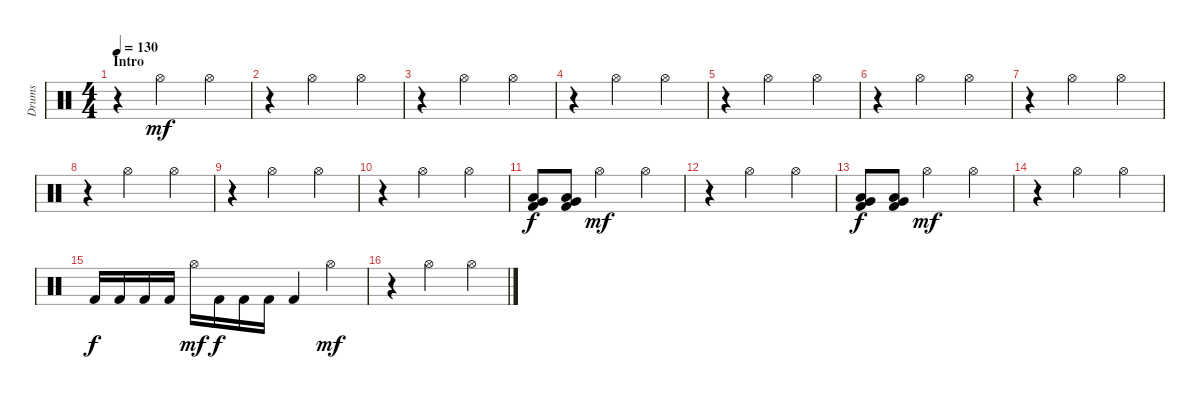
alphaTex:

\track ("Drums" "Drums") {instrument percussion}
\staff {score}
\articulation defaults
\ts (4 4)
\section ("" "Intro")
\tempo 130
\clef neutral
\ks c
r.4{dy mf} "Hi-Hat (open)".2 "Hi-Hat (open)".4 |
r.4 "Hi-Hat (open)".2 "Hi-Hat (open)".4 |
r.4 "Hi-Hat (open)".2 "Hi-Hat (open)".4 |
r.4 "Hi-Hat (open)".2 "Hi-Hat (open)".4 |
r.4 "Hi-Hat (open)".2 "Hi-Hat (open)".4 |
r.4 "Hi-Hat (open)".2 "Hi-Hat (open)".4 |
r.4 "Hi-Hat (open)".2 "Hi-Hat (open)".4 |
r.4 "Hi-Hat (open)".2 "Hi-Hat (open)".4 |
r.4 "Hi-Hat (open)".2 "Hi-Hat (open)".4 |
r.4 "Hi-Hat (open)".2 "Hi-Hat (open)".4 |
("Very Low Tom (hit)" "Low Tom (hit)" "Kick (hit) 2").8{dy f} ("Very Low Tom (hit)" "Low Tom (hit)" "Kick (hit) 2").8 "Hi-Hat (open)".2{dy mf} "Hi-Hat (open)".4 |
r.4 "Hi-Hat (open)".2 "Hi-Hat (open)".4 |
("Very Low Tom (hit)" "Low Tom (hit)" "Kick (hit) 2").8{dy f} ("Very Low Tom (hit)" "Low Tom (hit)" "Kick (hit) 2").8 "Hi-Hat (open)".2{dy mf} "Hi-Hat (open)".4 |
r.4 "Hi-Hat (open)".2 "Hi-Hat (open)".4 |
"Kick (hit) 2".16{dy f} "Kick (hit) 2".16 "Kick (hit) 2".16 "Kick (hit) 2".16 "Hi-Hat (open)".16{dy mf} "Kick (hit) 2".16{dy f} "Kick (hit) 2".16 "Kick (hit) 2".16 "Kick (hit) 2".4 "Hi-Hat (open)".4{dy mf} |
r.4 "Hi-Hat (open)".2 "Hi-Hat (open)".4
